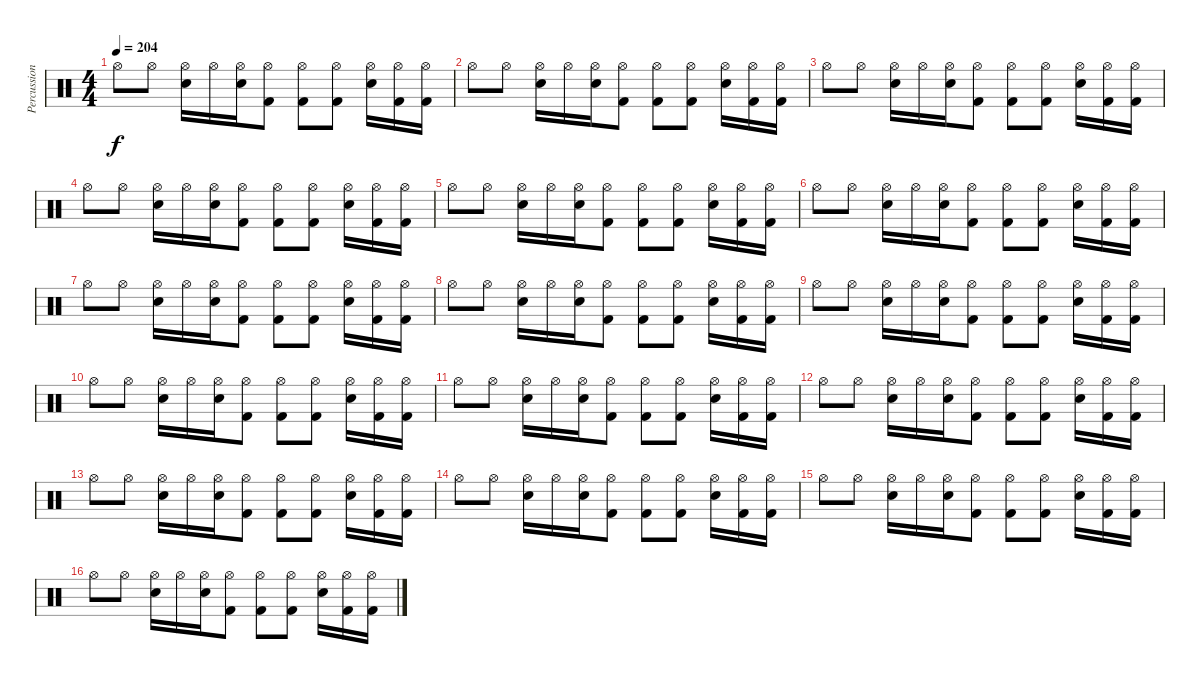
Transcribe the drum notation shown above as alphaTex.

\track ("Percussion" "Percussion") {instrument percussion}
\staff {score}
\articulation defaults
\ts (4 4)
\tempo 204
\clef neutral
\ks c "Hi-Hat (open)".8{dy f} "Hi-Hat (open)".8
("Hi-Hat (open)" "Snare (hit) 2").16 "Hi-Hat (open)".16 ("Hi-Hat (open)" "Snare (hit) 2").16 ("Hi-Hat (open)" "Kick (hit) 2").8 ("Hi-Hat (open)" "Kick (hit) 2").8 ("Hi-Hat (open)" "Kick (hit) 2").8 ("Hi-Hat (open)" "Snare (hit) 2").16 ("Hi-Hat (open)" "Kick (hit) 2").16 ("Hi-Hat (open)" "Kick (hit) 2").16 |
"Hi-Hat (open)".8 "Hi-Hat (open)".8 ("Hi-Hat (open)" "Snare (hit) 2").16 "Hi-Hat (open)".16 ("Hi-Hat (open)" "Snare (hit) 2").16 ("Hi-Hat (open)" "Kick (hit) 2").8 ("Hi-Hat (open)" "Kick (hit) 2").8 ("Hi-Hat (open)" "Kick (hit) 2").8 ("Hi-Hat (open)" "Snare (hit) 2").16 ("Hi-Hat (open)" "Kick (hit) 2").16 ("Hi-Hat (open)" "Kick (hit) 2").16 |
"Hi-Hat (open)".8 "Hi-Hat (open)".8 ("Hi-Hat (open)" "Snare (hit) 2").16 "Hi-Hat (open)".16 ("Hi-Hat (open)" "Snare (hit) 2").16 ("Hi-Hat (open)" "Kick (hit) 2").8 ("Hi-Hat (open)" "Kick (hit) 2").8 ("Hi-Hat (open)" "Kick (hit) 2").8 ("Hi-Hat (open)" "Snare (hit) 2").16 ("Hi-Hat (open)" "Kick (hit) 2").16 ("Hi-Hat (open)" "Kick (hit) 2").16 |
"Hi-Hat (open)".8 "Hi-Hat (open)".8 ("Hi-Hat (open)" "Snare (hit) 2").16 "Hi-Hat (open)".16 ("Hi-Hat (open)" "Snare (hit) 2").16 ("Hi-Hat (open)" "Kick (hit) 2").8 ("Hi-Hat (open)" "Kick (hit) 2").8 ("Hi-Hat (open)" "Kick (hit) 2").8 ("Hi-Hat (open)" "Snare (hit) 2").16 ("Hi-Hat (open)" "Kick (hit) 2").16 ("Hi-Hat (open)" "Kick (hit) 2").16 |
"Hi-Hat (open)".8 "Hi-Hat (open)".8 ("Hi-Hat (open)" "Snare (hit) 2").16 "Hi-Hat (open)".16 ("Hi-Hat (open)" "Snare (hit) 2").16 ("Hi-Hat (open)" "Kick (hit) 2").8 ("Hi-Hat (open)" "Kick (hit) 2").8 ("Hi-Hat (open)" "Kick (hit) 2").8 ("Hi-Hat (open)" "Snare (hit) 2").16 ("Hi-Hat (open)" "Kick (hit) 2").16 ("Hi-Hat (open)" "Kick (hit) 2").16 |
"Hi-Hat (open)".8 "Hi-Hat (open)".8 ("Hi-Hat (open)" "Snare (hit) 2").16 "Hi-Hat (open)".16 ("Hi-Hat (open)" "Snare (hit) 2").16 ("Hi-Hat (open)" "Kick (hit) 2").8 ("Hi-Hat (open)" "Kick (hit) 2").8 ("Hi-Hat (open)" "Kick (hit) 2").8 ("Hi-Hat (open)" "Snare (hit) 2").16 ("Hi-Hat (open)" "Kick (hit) 2").16 ("Hi-Hat (open)" "Kick (hit) 2").16 |
"Hi-Hat (open)".8 "Hi-Hat (open)".8 ("Hi-Hat (open)" "Snare (hit) 2").16 "Hi-Hat (open)".16 ("Hi-Hat (open)" "Snare (hit) 2").16 ("Hi-Hat (open)" "Kick (hit) 2").8 ("Hi-Hat (open)" "Kick (hit) 2").8 ("Hi-Hat (open)" "Kick (hit) 2").8 ("Hi-Hat (open)" "Snare (hit) 2").16 ("Hi-Hat (open)" "Kick (hit) 2").16 ("Hi-Hat (open)" "Kick (hit) 2").16 |
"Hi-Hat (open)".8 "Hi-Hat (open)".8 ("Hi-Hat (open)" "Snare (hit) 2").16 "Hi-Hat (open)".16 ("Hi-Hat (open)" "Snare (hit) 2").16 ("Hi-Hat (open)" "Kick (hit) 2").8 ("Hi-Hat (open)" "Kick (hit) 2").8 ("Hi-Hat (open)" "Kick (hit) 2").8 ("Hi-Hat (open)" "Snare (hit) 2").16 ("Hi-Hat (open)" "Kick (hit) 2").16 ("Hi-Hat (open)" "Kick (hit) 2").16 |
"Hi-Hat (open)".8 "Hi-Hat (open)".8 ("Hi-Hat (open)" "Snare (hit) 2").16 "Hi-Hat (open)".16 ("Hi-Hat (open)" "Snare (hit) 2").16 ("Hi-Hat (open)" "Kick (hit) 2").8 ("Hi-Hat (open)" "Kick (hit) 2").8 ("Hi-Hat (open)" "Kick (hit) 2").8 ("Hi-Hat (open)" "Snare (hit) 2").16 ("Hi-Hat (open)" "Kick (hit) 2").16 ("Hi-Hat (open)" "Kick (hit) 2").16 |
"Hi-Hat (open)".8 "Hi-Hat (open)".8 ("Hi-Hat (open)" "Snare (hit) 2").16 "Hi-Hat (open)".16 ("Hi-Hat (open)" "Snare (hit) 2").16 ("Hi-Hat (open)" "Kick (hit) 2").8 ("Hi-Hat (open)" "Kick (hit) 2").8 ("Hi-Hat (open)" "Kick (hit) 2").8 ("Hi-Hat (open)" "Snare (hit) 2").16 ("Hi-Hat (open)" "Kick (hit) 2").16 ("Hi-Hat (open)" "Kick (hit) 2").16 |
"Hi-Hat (open)".8 "Hi-Hat (open)".8 ("Hi-Hat (open)" "Snare (hit) 2").16 "Hi-Hat (open)".16 ("Hi-Hat (open)" "Snare (hit) 2").16 ("Hi-Hat (open)" "Kick (hit) 2").8 ("Hi-Hat (open)" "Kick (hit) 2").8 ("Hi-Hat (open)" "Kick (hit) 2").8 ("Hi-Hat (open)" "Snare (hit) 2").16 ("Hi-Hat (open)" "Kick (hit) 2").16 ("Hi-Hat (open)" "Kick (hit) 2").16 |
"Hi-Hat (open)".8 "Hi-Hat (open)".8 ("Hi-Hat (open)" "Snare (hit) 2").16 "Hi-Hat (open)".16 ("Hi-Hat (open)" "Snare (hit) 2").16 ("Hi-Hat (open)" "Kick (hit) 2").8 ("Hi-Hat (open)" "Kick (hit) 2").8 ("Hi-Hat (open)" "Kick (hit) 2").8 ("Hi-Hat (open)" "Snare (hit) 2").16 ("Hi-Hat (open)" "Kick (hit) 2").16 ("Hi-Hat (open)" "Kick (hit) 2").16 |
"Hi-Hat (open)".8 "Hi-Hat (open)".8 ("Hi-Hat (open)" "Snare (hit) 2").16 "Hi-Hat (open)".16 ("Hi-Hat (open)" "Snare (hit) 2").16 ("Hi-Hat (open)" "Kick (hit) 2").8 ("Hi-Hat (open)" "Kick (hit) 2").8 ("Hi-Hat (open)" "Kick (hit) 2").8 ("Hi-Hat (open)" "Snare (hit) 2").16 ("Hi-Hat (open)" "Kick (hit) 2").16 ("Hi-Hat (open)" "Kick (hit) 2").16 |
"Hi-Hat (open)".8 "Hi-Hat (open)".8 ("Hi-Hat (open)" "Snare (hit) 2").16 "Hi-Hat (open)".16 ("Hi-Hat (open)" "Snare (hit) 2").16 ("Hi-Hat (open)" "Kick (hit) 2").8 ("Hi-Hat (open)" "Kick (hit) 2").8 ("Hi-Hat (open)" "Kick (hit) 2").8 ("Hi-Hat (open)" "Snare (hit) 2").16 ("Hi-Hat (open)" "Kick (hit) 2").16 ("Hi-Hat (open)" "Kick (hit) 2").16 |
"Hi-Hat (open)".8 "Hi-Hat (open)".8 ("Hi-Hat (open)" "Snare (hit) 2").16 "Hi-Hat (open)".16 ("Hi-Hat (open)" "Snare (hit) 2").16 ("Hi-Hat (open)" "Kick (hit) 2").8 ("Hi-Hat (open)" "Kick (hit) 2").8 ("Hi-Hat (open)" "Kick (hit) 2").8 ("Hi-Hat (open)" "Snare (hit) 2").16 ("Hi-Hat (open)" "Kick (hit) 2").16 ("Hi-Hat (open)" "Kick (hit) 2").16 |
"Hi-Hat (open)".8 "Hi-Hat (open)".8 ("Hi-Hat (open)" "Snare (hit) 2").16 "Hi-Hat (open)".16 ("Hi-Hat (open)" "Snare (hit) 2").16 ("Hi-Hat (open)" "Kick (hit) 2").8 ("Hi-Hat (open)" "Kick (hit) 2").8 ("Hi-Hat (open)" "Kick (hit) 2").8 ("Hi-Hat (open)" "Snare (hit) 2").16 ("Hi-Hat (open)" "Kick (hit) 2").16 ("Hi-Hat (open)" "Kick (hit) 2").16
